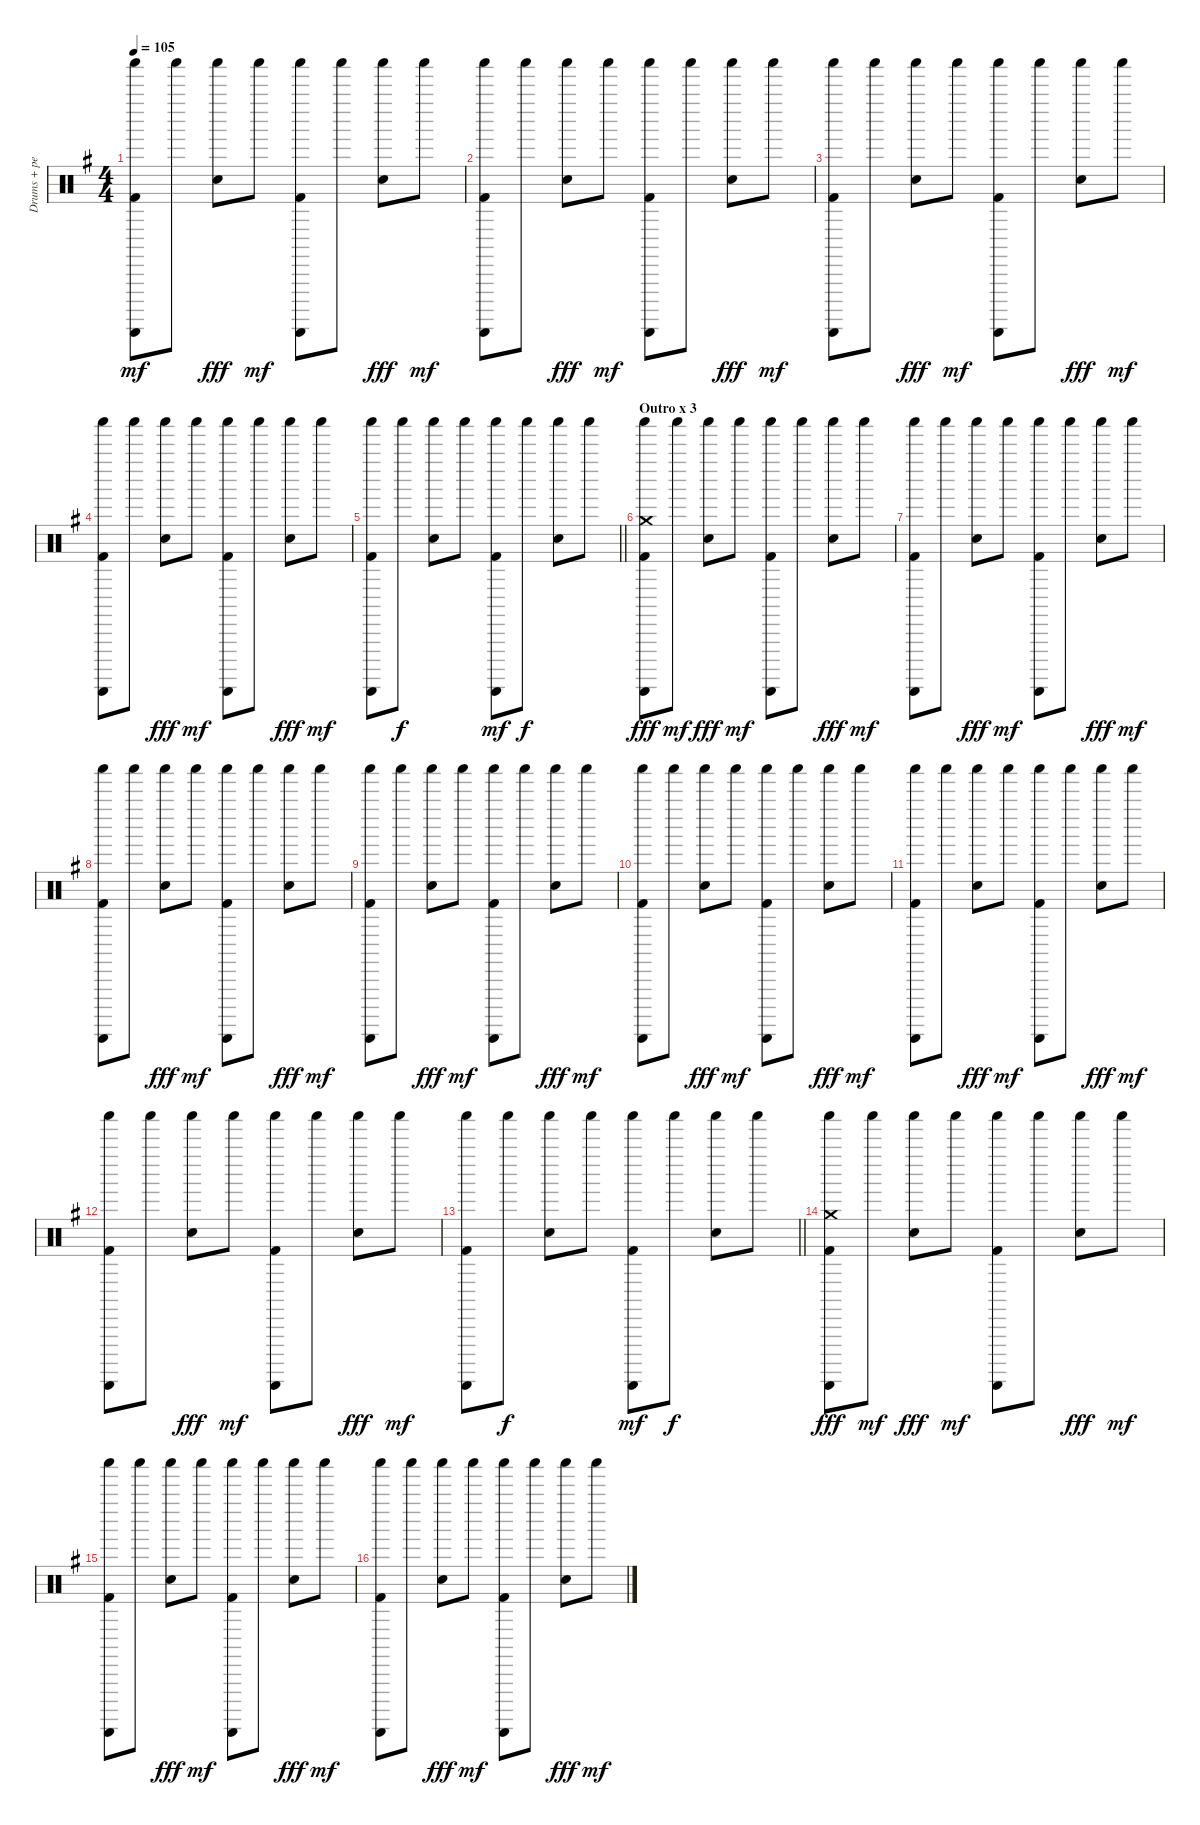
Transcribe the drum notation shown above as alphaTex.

\track ("Drums + percussion" "Drums + pe") {instrument percussion}
\staff {score}
\articulation defaults
\ts (4 4)
\tempo 105
\clef neutral
\ks g
("Shaker (hit)" "Guiro (scrap-return)" "Kick (hit) 2").8{dy mf} "Shaker (hit)".8 ("Shaker (hit)" "Snare (hit) 2").8{dy fff} "Shaker (hit)".8{dy mf} ("Shaker (hit)" "Guiro (scrap-return)" "Kick (hit) 2").8 "Shaker (hit)".8 ("Shaker (hit)" "Snare (hit) 2").8{dy fff} "Shaker (hit)".8{dy mf} |
("Shaker (hit)" "Guiro (scrap-return)" "Kick (hit) 2").8 "Shaker (hit)".8 ("Shaker (hit)" "Snare (hit) 2").8{dy fff} "Shaker (hit)".8{dy mf} ("Shaker (hit)" "Guiro (scrap-return)" "Kick (hit) 2").8 "Shaker (hit)".8 ("Shaker (hit)" "Snare (hit) 2").8{dy fff} "Shaker (hit)".8{dy mf} |
("Shaker (hit)" "Guiro (scrap-return)" "Kick (hit) 2").8 "Shaker (hit)".8 ("Shaker (hit)" "Snare (hit) 2").8{dy fff} "Shaker (hit)".8{dy mf} ("Shaker (hit)" "Guiro (scrap-return)" "Kick (hit) 2").8 "Shaker (hit)".8 ("Shaker (hit)" "Snare (hit) 2").8{dy fff} "Shaker (hit)".8{dy mf} |
("Shaker (hit)" "Guiro (scrap-return)" "Kick (hit) 2").8 "Shaker (hit)".8 ("Shaker (hit)" "Snare (hit) 2").8{dy fff} "Shaker (hit)".8{dy mf} ("Shaker (hit)" "Guiro (scrap-return)" "Kick (hit) 2").8 "Shaker (hit)".8 ("Shaker (hit)" "Snare (hit) 2").8{dy fff} "Shaker (hit)".8{dy mf} |
\barLineRight lightlight
("Shaker (hit)" "Guiro (scrap-return)" "Kick (hit) 2").8 "Shaker (hit)".8{dy f} ("Shaker (hit)" "Snare (hit) 2").8 "Shaker (hit)".8 ("Shaker (hit)" "Guiro (scrap-return)" "Kick (hit) 2").8{dy mf} "Shaker (hit)".8{dy f} ("Shaker (hit)" "Snare (hit) 2").8 "Shaker (hit)".8 |
\section ("" "Outro x 3")
("Shaker (hit)" "Guiro (scrap-return)" "Crash medium (hit)" "Kick (hit) 2").8{dy fff} "Shaker (hit)".8{dy mf} ("Shaker (hit)" "Snare (hit) 2").8{dy fff} "Shaker (hit)".8{dy mf} ("Shaker (hit)" "Guiro (scrap-return)" "Kick (hit) 2").8 "Shaker (hit)".8 ("Shaker (hit)" "Snare (hit) 2").8{dy fff} "Shaker (hit)".8{dy mf} |
("Shaker (hit)" "Guiro (scrap-return)" "Kick (hit) 2").8 "Shaker (hit)".8 ("Shaker (hit)" "Snare (hit) 2").8{dy fff} "Shaker (hit)".8{dy mf} ("Shaker (hit)" "Guiro (scrap-return)" "Kick (hit) 2").8 "Shaker (hit)".8 ("Shaker (hit)" "Snare (hit) 2").8{dy fff} "Shaker (hit)".8{dy mf} |
("Shaker (hit)" "Guiro (scrap-return)" "Kick (hit) 2").8 "Shaker (hit)".8 ("Shaker (hit)" "Snare (hit) 2").8{dy fff} "Shaker (hit)".8{dy mf} ("Shaker (hit)" "Guiro (scrap-return)" "Kick (hit) 2").8 "Shaker (hit)".8 ("Shaker (hit)" "Snare (hit) 2").8{dy fff} "Shaker (hit)".8{dy mf} |
("Shaker (hit)" "Guiro (scrap-return)" "Kick (hit) 2").8 "Shaker (hit)".8 ("Shaker (hit)" "Snare (hit) 2").8{dy fff} "Shaker (hit)".8{dy mf} ("Shaker (hit)" "Guiro (scrap-return)" "Kick (hit) 2").8 "Shaker (hit)".8 ("Shaker (hit)" "Snare (hit) 2").8{dy fff} "Shaker (hit)".8{dy mf} |
("Shaker (hit)" "Guiro (scrap-return)" "Kick (hit) 2").8 "Shaker (hit)".8 ("Shaker (hit)" "Snare (hit) 2").8{dy fff} "Shaker (hit)".8{dy mf} ("Shaker (hit)" "Guiro (scrap-return)" "Kick (hit) 2").8 "Shaker (hit)".8 ("Shaker (hit)" "Snare (hit) 2").8{dy fff} "Shaker (hit)".8{dy mf} |
("Shaker (hit)" "Guiro (scrap-return)" "Kick (hit) 2").8 "Shaker (hit)".8 ("Shaker (hit)" "Snare (hit) 2").8{dy fff} "Shaker (hit)".8{dy mf} ("Shaker (hit)" "Guiro (scrap-return)" "Kick (hit) 2").8 "Shaker (hit)".8 ("Shaker (hit)" "Snare (hit) 2").8{dy fff} "Shaker (hit)".8{dy mf} |
("Shaker (hit)" "Guiro (scrap-return)" "Kick (hit) 2").8 "Shaker (hit)".8 ("Shaker (hit)" "Snare (hit) 2").8{dy fff} "Shaker (hit)".8{dy mf} ("Shaker (hit)" "Guiro (scrap-return)" "Kick (hit) 2").8 "Shaker (hit)".8 ("Shaker (hit)" "Snare (hit) 2").8{dy fff} "Shaker (hit)".8{dy mf} |
\barLineRight lightlight
("Shaker (hit)" "Guiro (scrap-return)" "Kick (hit) 2").8 "Shaker (hit)".8{dy f} ("Shaker (hit)" "Snare (hit) 2").8 "Shaker (hit)".8 ("Shaker (hit)" "Guiro (scrap-return)" "Kick (hit) 2").8{dy mf} "Shaker (hit)".8{dy f} ("Shaker (hit)" "Snare (hit) 2").8 "Shaker (hit)".8 |
("Shaker (hit)" "Guiro (scrap-return)" "Crash medium (hit)" "Kick (hit) 2").8{dy fff} "Shaker (hit)".8{dy mf} ("Shaker (hit)" "Snare (hit) 2").8{dy fff} "Shaker (hit)".8{dy mf} ("Shaker (hit)" "Guiro (scrap-return)" "Kick (hit) 2").8 "Shaker (hit)".8 ("Shaker (hit)" "Snare (hit) 2").8{dy fff} "Shaker (hit)".8{dy mf} |
("Shaker (hit)" "Guiro (scrap-return)" "Kick (hit) 2").8 "Shaker (hit)".8 ("Shaker (hit)" "Snare (hit) 2").8{dy fff} "Shaker (hit)".8{dy mf} ("Shaker (hit)" "Guiro (scrap-return)" "Kick (hit) 2").8 "Shaker (hit)".8 ("Shaker (hit)" "Snare (hit) 2").8{dy fff} "Shaker (hit)".8{dy mf} |
("Shaker (hit)" "Guiro (scrap-return)" "Kick (hit) 2").8 "Shaker (hit)".8 ("Shaker (hit)" "Snare (hit) 2").8{dy fff} "Shaker (hit)".8{dy mf} ("Shaker (hit)" "Guiro (scrap-return)" "Kick (hit) 2").8 "Shaker (hit)".8 ("Shaker (hit)" "Snare (hit) 2").8{dy fff} "Shaker (hit)".8{dy mf}
